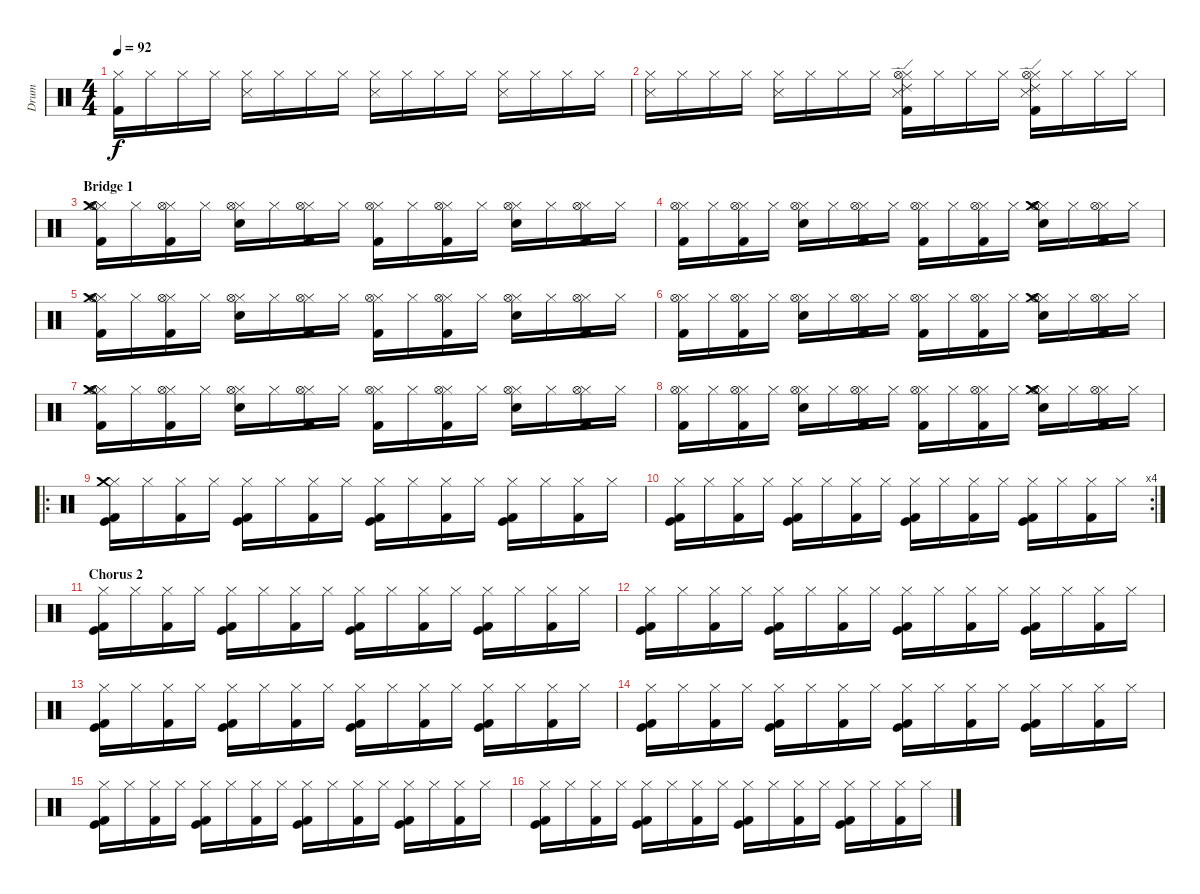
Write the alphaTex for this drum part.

\track ("Drum" "Drum") {instrument percussion}
\staff {score}
\articulation defaults
\ts (4 4)
\tempo 92
\clef neutral
\ks c
("Hi-Hat (closed)" "Kick (hit) 2").16{dy f} "Hi-Hat (closed)".16 "Hi-Hat (closed)".16 "Hi-Hat (closed)".16 ("Hi-Hat (closed)" "Snare (side stick) 3").16 "Hi-Hat (closed)".16 "Hi-Hat (closed)".16 "Hi-Hat (closed)".16 ("Hi-Hat (closed)" "Snare (side stick) 3").16 "Hi-Hat (closed)".16 "Hi-Hat (closed)".16 "Hi-Hat (closed)".16 ("Hi-Hat (closed)" "Snare (side stick) 3").16 "Hi-Hat (closed)".16 "Hi-Hat (closed)".16 "Hi-Hat (closed)".16 |
("Hi-Hat (closed)" "Snare (side stick) 3").16 "Hi-Hat (closed)".16 "Hi-Hat (closed)".16 "Hi-Hat (closed)".16 ("Hi-Hat (closed)" "Snare (side stick) 3").16 "Hi-Hat (closed)".16 "Hi-Hat (closed)".16 "Hi-Hat (closed)".16 ("Hi-Hat (closed)" "Ride (edge) 2" "Snare (side stick) 3" "Hi-Hat (open)" "Kick (hit) 2").16 "Hi-Hat (closed)".16 "Hi-Hat (closed)".16 "Hi-Hat (closed)".16 ("Hi-Hat (closed)" "Ride (edge) 2" "Snare (side stick) 3" "Hi-Hat (open)" "Kick (hit) 2").16 "Hi-Hat (closed)".16 "Hi-Hat (closed)".16 "Hi-Hat (closed)".16 |
\section ("" "Bridge 1")
("Hi-Hat (closed)" "Crash medium (hit)" "Hi-Hat (open)" "Kick (hit) 2").16 "Hi-Hat (closed)".16 ("Hi-Hat (closed)" "Hi-Hat (open)" "Kick (hit) 2").16 "Hi-Hat (closed)".16 ("Hi-Hat (closed)" "Snare (hit) 2" "Hi-Hat (open)").16 "Hi-Hat (closed)".16 ("Hi-Hat (closed)" "Hi-Hat (open)" "Kick (hit) 2").16 "Hi-Hat (closed)".16 ("Hi-Hat (closed)" "Hi-Hat (open)" "Kick (hit) 2").16 "Hi-Hat (closed)".16 ("Hi-Hat (closed)" "Hi-Hat (open)" "Kick (hit) 2").16 "Hi-Hat (closed)".16 ("Hi-Hat (closed)" "Snare (hit) 2" "Hi-Hat (open)").16 "Hi-Hat (closed)".16 ("Hi-Hat (closed)" "Hi-Hat (open)" "Kick (hit) 2").16 "Hi-Hat (closed)".16 |
("Hi-Hat (closed)" "Hi-Hat (open)" "Kick (hit) 2").16 "Hi-Hat (closed)".16 ("Hi-Hat (closed)" "Hi-Hat (open)" "Kick (hit) 2").16 "Hi-Hat (closed)".16 ("Hi-Hat (closed)" "Snare (hit) 2" "Hi-Hat (open)").16 "Hi-Hat (closed)".16 ("Hi-Hat (closed)" "Hi-Hat (open)" "Kick (hit) 2").16 "Hi-Hat (closed)".16 ("Hi-Hat (closed)" "Hi-Hat (open)" "Kick (hit) 2").16 "Hi-Hat (closed)".16 ("Hi-Hat (closed)" "Hi-Hat (open)" "Kick (hit) 2").16 "Hi-Hat (closed)".16 ("Hi-Hat (closed)" "Snare (hit) 2" "Hi-Hat (open)" "Crash medium (hit)").16 "Hi-Hat (closed)".16 ("Hi-Hat (closed)" "Hi-Hat (open)" "Kick (hit) 2").16 "Hi-Hat (closed)".16 |
("Hi-Hat (closed)" "Crash medium (hit)" "Hi-Hat (open)" "Kick (hit) 2").16 "Hi-Hat (closed)".16 ("Hi-Hat (closed)" "Hi-Hat (open)" "Kick (hit) 2").16 "Hi-Hat (closed)".16 ("Hi-Hat (closed)" "Snare (hit) 2" "Hi-Hat (open)").16 "Hi-Hat (closed)".16 ("Hi-Hat (closed)" "Hi-Hat (open)" "Kick (hit) 2").16 "Hi-Hat (closed)".16 ("Hi-Hat (closed)" "Hi-Hat (open)" "Kick (hit) 2").16 "Hi-Hat (closed)".16 ("Hi-Hat (closed)" "Hi-Hat (open)" "Kick (hit) 2").16 "Hi-Hat (closed)".16 ("Hi-Hat (closed)" "Snare (hit) 2" "Hi-Hat (open)").16 "Hi-Hat (closed)".16 ("Hi-Hat (closed)" "Hi-Hat (open)" "Kick (hit) 2").16 "Hi-Hat (closed)".16 |
("Hi-Hat (closed)" "Hi-Hat (open)" "Kick (hit) 2").16 "Hi-Hat (closed)".16 ("Hi-Hat (closed)" "Hi-Hat (open)" "Kick (hit) 2").16 "Hi-Hat (closed)".16 ("Hi-Hat (closed)" "Snare (hit) 2" "Hi-Hat (open)").16 "Hi-Hat (closed)".16 ("Hi-Hat (closed)" "Hi-Hat (open)" "Kick (hit) 2").16 "Hi-Hat (closed)".16 ("Hi-Hat (closed)" "Hi-Hat (open)" "Kick (hit) 2").16 "Hi-Hat (closed)".16 ("Hi-Hat (closed)" "Hi-Hat (open)" "Kick (hit) 2").16 "Hi-Hat (closed)".16 ("Hi-Hat (closed)" "Snare (hit) 2" "Hi-Hat (open)" "Crash medium (hit)").16 "Hi-Hat (closed)".16 ("Hi-Hat (closed)" "Hi-Hat (open)" "Kick (hit) 2").16 "Hi-Hat (closed)".16 |
("Hi-Hat (closed)" "Crash medium (hit)" "Hi-Hat (open)" "Kick (hit) 2").16 "Hi-Hat (closed)".16 ("Hi-Hat (closed)" "Hi-Hat (open)" "Kick (hit) 2").16 "Hi-Hat (closed)".16 ("Hi-Hat (closed)" "Snare (hit) 2" "Hi-Hat (open)").16 "Hi-Hat (closed)".16 ("Hi-Hat (closed)" "Hi-Hat (open)" "Kick (hit) 2").16 "Hi-Hat (closed)".16 ("Hi-Hat (closed)" "Hi-Hat (open)" "Kick (hit) 2").16 "Hi-Hat (closed)".16 ("Hi-Hat (closed)" "Hi-Hat (open)" "Kick (hit) 2").16 "Hi-Hat (closed)".16 ("Hi-Hat (closed)" "Snare (hit) 2" "Hi-Hat (open)").16 "Hi-Hat (closed)".16 ("Hi-Hat (closed)" "Hi-Hat (open)" "Kick (hit) 2").16 "Hi-Hat (closed)".16 |
("Hi-Hat (closed)" "Hi-Hat (open)" "Kick (hit) 2").16 "Hi-Hat (closed)".16 ("Hi-Hat (closed)" "Hi-Hat (open)" "Kick (hit) 2").16 "Hi-Hat (closed)".16 ("Hi-Hat (closed)" "Snare (hit) 2" "Hi-Hat (open)").16 "Hi-Hat (closed)".16 ("Hi-Hat (closed)" "Hi-Hat (open)" "Kick (hit) 2").16 "Hi-Hat (closed)".16 ("Hi-Hat (closed)" "Hi-Hat (open)" "Kick (hit) 2").16 "Hi-Hat (closed)".16 ("Hi-Hat (closed)" "Hi-Hat (open)" "Kick (hit) 2").16 "Hi-Hat (closed)".16 ("Hi-Hat (closed)" "Snare (hit) 2" "Hi-Hat (open)" "Crash medium (hit)").16 "Hi-Hat (closed)".16 ("Hi-Hat (closed)" "Hi-Hat (open)" "Kick (hit) 2").16 "Hi-Hat (closed)".16 |
\ro
("Hi-Hat (closed)" "Crash medium (hit)" "Kick (hit)" "Kick (hit) 2").16 "Hi-Hat (closed)".16 ("Hi-Hat (closed)" "Kick (hit) 2").16 "Hi-Hat (closed)".16 ("Hi-Hat (closed)" "Kick (hit)" "Kick (hit) 2").16 "Hi-Hat (closed)".16 ("Hi-Hat (closed)" "Kick (hit) 2").16 "Hi-Hat (closed)".16 ("Hi-Hat (closed)" "Kick (hit)" "Kick (hit) 2").16 "Hi-Hat (closed)".16 ("Hi-Hat (closed)" "Kick (hit) 2").16 "Hi-Hat (closed)".16 ("Hi-Hat (closed)" "Kick (hit)" "Kick (hit) 2").16 "Hi-Hat (closed)".16 ("Hi-Hat (closed)" "Kick (hit) 2").16 "Hi-Hat (closed)".16 |
\rc 4
("Hi-Hat (closed)" "Kick (hit)" "Kick (hit) 2").16 "Hi-Hat (closed)".16 ("Hi-Hat (closed)" "Kick (hit) 2").16 "Hi-Hat (closed)".16 ("Hi-Hat (closed)" "Kick (hit)" "Kick (hit) 2").16 "Hi-Hat (closed)".16 ("Hi-Hat (closed)" "Kick (hit) 2").16 "Hi-Hat (closed)".16 ("Hi-Hat (closed)" "Kick (hit)" "Kick (hit) 2").16 "Hi-Hat (closed)".16 ("Hi-Hat (closed)" "Kick (hit) 2").16 "Hi-Hat (closed)".16 ("Hi-Hat (closed)" "Kick (hit)" "Kick (hit) 2").16 "Hi-Hat (closed)".16 ("Hi-Hat (closed)" "Kick (hit) 2").16 "Hi-Hat (closed)".16 |
\section ("" "Chorus 2")
("Hi-Hat (closed)" "Kick (hit)" "Kick (hit) 2").16 "Hi-Hat (closed)".16 ("Hi-Hat (closed)" "Kick (hit) 2").16 "Hi-Hat (closed)".16 ("Hi-Hat (closed)" "Kick (hit)" "Kick (hit) 2").16 "Hi-Hat (closed)".16 ("Hi-Hat (closed)" "Kick (hit) 2").16 "Hi-Hat (closed)".16 ("Hi-Hat (closed)" "Kick (hit)" "Kick (hit) 2").16 "Hi-Hat (closed)".16 ("Hi-Hat (closed)" "Kick (hit) 2").16 "Hi-Hat (closed)".16 ("Hi-Hat (closed)" "Kick (hit)" "Kick (hit) 2").16 "Hi-Hat (closed)".16 ("Hi-Hat (closed)" "Kick (hit) 2").16 "Hi-Hat (closed)".16 |
("Hi-Hat (closed)" "Kick (hit)" "Kick (hit) 2").16 "Hi-Hat (closed)".16 ("Hi-Hat (closed)" "Kick (hit) 2").16 "Hi-Hat (closed)".16 ("Hi-Hat (closed)" "Kick (hit)" "Kick (hit) 2").16 "Hi-Hat (closed)".16 ("Hi-Hat (closed)" "Kick (hit) 2").16 "Hi-Hat (closed)".16 ("Hi-Hat (closed)" "Kick (hit)" "Kick (hit) 2").16 "Hi-Hat (closed)".16 ("Hi-Hat (closed)" "Kick (hit) 2").16 "Hi-Hat (closed)".16 ("Hi-Hat (closed)" "Kick (hit)" "Kick (hit) 2").16 "Hi-Hat (closed)".16 ("Hi-Hat (closed)" "Kick (hit) 2").16 "Hi-Hat (closed)".16 |
("Hi-Hat (closed)" "Kick (hit)" "Kick (hit) 2").16 "Hi-Hat (closed)".16 ("Hi-Hat (closed)" "Kick (hit) 2").16 "Hi-Hat (closed)".16 ("Hi-Hat (closed)" "Kick (hit)" "Kick (hit) 2").16 "Hi-Hat (closed)".16 ("Hi-Hat (closed)" "Kick (hit) 2").16 "Hi-Hat (closed)".16 ("Hi-Hat (closed)" "Kick (hit)" "Kick (hit) 2").16 "Hi-Hat (closed)".16 ("Hi-Hat (closed)" "Kick (hit) 2").16 "Hi-Hat (closed)".16 ("Hi-Hat (closed)" "Kick (hit)" "Kick (hit) 2").16 "Hi-Hat (closed)".16 ("Hi-Hat (closed)" "Kick (hit) 2").16 "Hi-Hat (closed)".16 |
("Hi-Hat (closed)" "Kick (hit)" "Kick (hit) 2").16 "Hi-Hat (closed)".16 ("Hi-Hat (closed)" "Kick (hit) 2").16 "Hi-Hat (closed)".16 ("Hi-Hat (closed)" "Kick (hit)" "Kick (hit) 2").16 "Hi-Hat (closed)".16 ("Hi-Hat (closed)" "Kick (hit) 2").16 "Hi-Hat (closed)".16 ("Hi-Hat (closed)" "Kick (hit)" "Kick (hit) 2").16 "Hi-Hat (closed)".16 ("Hi-Hat (closed)" "Kick (hit) 2").16 "Hi-Hat (closed)".16 ("Hi-Hat (closed)" "Kick (hit)" "Kick (hit) 2").16 "Hi-Hat (closed)".16 ("Hi-Hat (closed)" "Kick (hit) 2").16 "Hi-Hat (closed)".16 |
("Hi-Hat (closed)" "Kick (hit)" "Kick (hit) 2").16 "Hi-Hat (closed)".16 ("Hi-Hat (closed)" "Kick (hit) 2").16 "Hi-Hat (closed)".16 ("Hi-Hat (closed)" "Kick (hit)" "Kick (hit) 2").16 "Hi-Hat (closed)".16 ("Hi-Hat (closed)" "Kick (hit) 2").16 "Hi-Hat (closed)".16 ("Hi-Hat (closed)" "Kick (hit)" "Kick (hit) 2").16 "Hi-Hat (closed)".16 ("Hi-Hat (closed)" "Kick (hit) 2").16 "Hi-Hat (closed)".16 ("Hi-Hat (closed)" "Kick (hit)" "Kick (hit) 2").16 "Hi-Hat (closed)".16 ("Hi-Hat (closed)" "Kick (hit) 2").16 "Hi-Hat (closed)".16 |
("Hi-Hat (closed)" "Kick (hit)" "Kick (hit) 2").16 "Hi-Hat (closed)".16 ("Hi-Hat (closed)" "Kick (hit) 2").16 "Hi-Hat (closed)".16 ("Hi-Hat (closed)" "Kick (hit)" "Kick (hit) 2").16 "Hi-Hat (closed)".16 ("Hi-Hat (closed)" "Kick (hit) 2").16 "Hi-Hat (closed)".16 ("Hi-Hat (closed)" "Kick (hit)" "Kick (hit) 2").16 "Hi-Hat (closed)".16 ("Hi-Hat (closed)" "Kick (hit) 2").16 "Hi-Hat (closed)".16 ("Hi-Hat (closed)" "Kick (hit)" "Kick (hit) 2").16 "Hi-Hat (closed)".16 ("Hi-Hat (closed)" "Kick (hit) 2").16 "Hi-Hat (closed)".16
